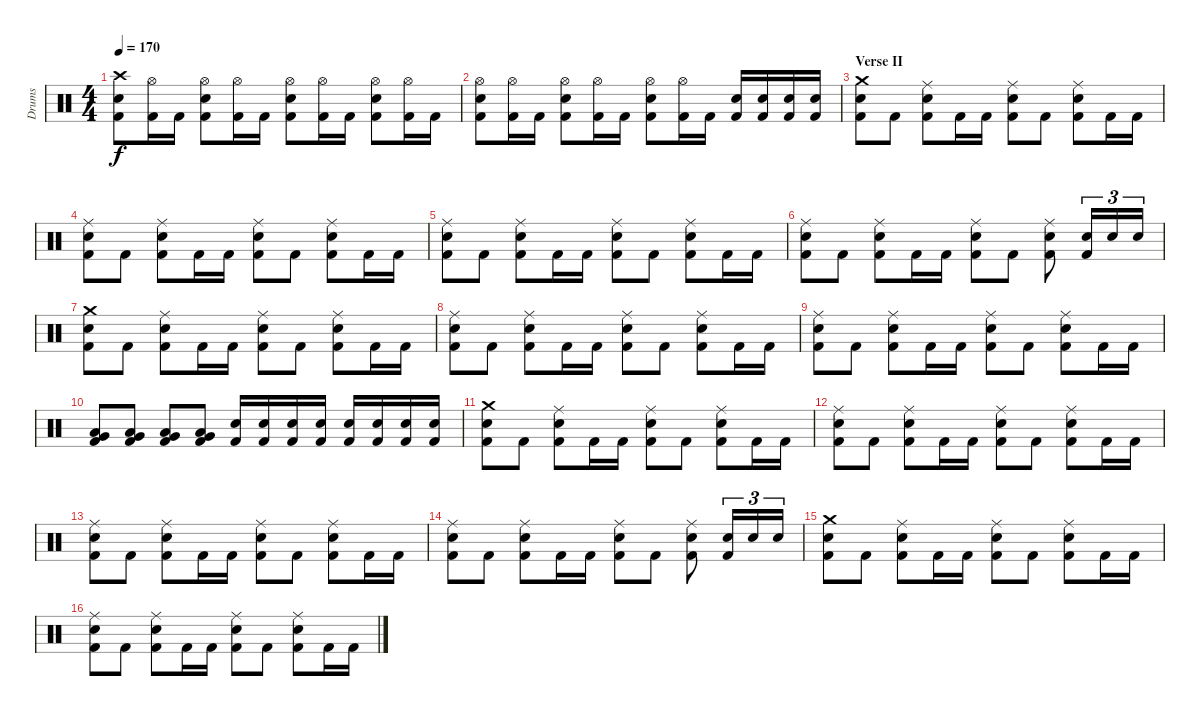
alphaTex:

\track ("Drums" "Drums") {instrument percussion}
\staff {score}
\articulation defaults
\ts (4 4)
\tempo 170
\clef neutral
\ks c
("Kick (hit) 2" "Snare (hit) 2" "Crash high (hit)").8{dy f} ("Kick (hit) 2" "Hi-Hat (open)").16 "Kick (hit) 2".16 ("Kick (hit) 2" "Snare (hit) 2" "Hi-Hat (open)").8 ("Kick (hit) 2" "Hi-Hat (open)").16 "Kick (hit) 2".16 ("Kick (hit) 2" "Snare (hit) 2" "Hi-Hat (open)").8 ("Kick (hit) 2" "Hi-Hat (open)").16 "Kick (hit) 2".16 ("Kick (hit) 2" "Snare (hit) 2" "Hi-Hat (open)").8 ("Kick (hit) 2" "Hi-Hat (open)").16 "Kick (hit) 2".16 |
("Kick (hit) 2" "Snare (hit) 2" "Hi-Hat (open)").8 ("Kick (hit) 2" "Hi-Hat (open)").16 "Kick (hit) 2".16 ("Kick (hit) 2" "Snare (hit) 2" "Hi-Hat (open)").8 ("Kick (hit) 2" "Hi-Hat (open)").16 "Kick (hit) 2".16 ("Kick (hit) 2" "Snare (hit) 2" "Hi-Hat (open)").8 ("Kick (hit) 2" "Hi-Hat (open)").16 "Kick (hit) 2".16 ("Kick (hit) 2" "Snare (hit) 2").16 ("Kick (hit) 2" "Snare (hit) 2").16 ("Kick (hit) 2" "Snare (hit) 2").16 ("Kick (hit) 2" "Snare (hit) 2").16 |
\section ("" "Verse II")
("Kick (hit) 2" "Snare (hit) 2" "Crash medium (hit)").8 "Kick (hit) 2".8 ("Kick (hit) 2" "Snare (hit) 2" "Ride (middle)").8 "Kick (hit) 2".16 "Kick (hit) 2".16 ("Kick (hit) 2" "Snare (hit) 2" "Ride (middle)").8 "Kick (hit) 2".8 ("Kick (hit) 2" "Snare (hit) 2" "Ride (middle)").8 "Kick (hit) 2".16 "Kick (hit) 2".16 |
("Kick (hit) 2" "Snare (hit) 2" "Ride (middle)").8 "Kick (hit) 2".8 ("Kick (hit) 2" "Snare (hit) 2" "Ride (middle)").8 "Kick (hit) 2".16 "Kick (hit) 2".16 ("Kick (hit) 2" "Snare (hit) 2" "Ride (middle)").8 "Kick (hit) 2".8 ("Kick (hit) 2" "Snare (hit) 2" "Ride (middle)").8 "Kick (hit) 2".16 "Kick (hit) 2".16 |
("Kick (hit) 2" "Snare (hit) 2" "Ride (middle)").8 "Kick (hit) 2".8 ("Kick (hit) 2" "Snare (hit) 2" "Ride (middle)").8 "Kick (hit) 2".16 "Kick (hit) 2".16 ("Kick (hit) 2" "Snare (hit) 2" "Ride (middle)").8 "Kick (hit) 2".8 ("Kick (hit) 2" "Snare (hit) 2" "Ride (middle)").8 "Kick (hit) 2".16 "Kick (hit) 2".16 |
("Kick (hit) 2" "Snare (hit) 2" "Ride (middle)").8 "Kick (hit) 2".8 ("Kick (hit) 2" "Snare (hit) 2" "Ride (middle)").8 "Kick (hit) 2".16 "Kick (hit) 2".16 ("Kick (hit) 2" "Snare (hit) 2" "Ride (middle)").8 "Kick (hit) 2".8 ("Kick (hit) 2" "Snare (hit) 2" "Ride (middle)").8 ("Kick (hit) 2" "Snare (hit) 2").16{tu (3 2)} "Snare (hit) 2".16{tu (3 2)} "Snare (hit) 2".16{tu (3 2)} |
("Kick (hit) 2" "Snare (hit) 2" "Crash medium (hit)").8 "Kick (hit) 2".8 ("Kick (hit) 2" "Snare (hit) 2" "Ride (middle)").8 "Kick (hit) 2".16 "Kick (hit) 2".16 ("Kick (hit) 2" "Snare (hit) 2" "Ride (middle)").8 "Kick (hit) 2".8 ("Kick (hit) 2" "Snare (hit) 2" "Ride (middle)").8 "Kick (hit) 2".16 "Kick (hit) 2".16 |
("Kick (hit) 2" "Snare (hit) 2" "Ride (middle)").8 "Kick (hit) 2".8 ("Kick (hit) 2" "Snare (hit) 2" "Ride (middle)").8 "Kick (hit) 2".16 "Kick (hit) 2".16 ("Kick (hit) 2" "Snare (hit) 2" "Ride (middle)").8 "Kick (hit) 2".8 ("Kick (hit) 2" "Snare (hit) 2" "Ride (middle)").8 "Kick (hit) 2".16 "Kick (hit) 2".16 |
("Kick (hit) 2" "Snare (hit) 2" "Ride (middle)").8 "Kick (hit) 2".8 ("Kick (hit) 2" "Snare (hit) 2" "Ride (middle)").8 "Kick (hit) 2".16 "Kick (hit) 2".16 ("Kick (hit) 2" "Snare (hit) 2" "Ride (middle)").8 "Kick (hit) 2".8 ("Kick (hit) 2" "Snare (hit) 2" "Ride (middle)").8 "Kick (hit) 2".16 "Kick (hit) 2".16 |
("Kick (hit) 2" "Very Low Tom (hit)" "Low Tom (hit)").8 ("Kick (hit) 2" "Very Low Tom (hit)" "Low Tom (hit)").8 ("Kick (hit) 2" "Very Low Tom (hit)" "Low Tom (hit)").8 ("Kick (hit) 2" "Very Low Tom (hit)" "Low Tom (hit)").8 ("Kick (hit) 2" "Snare (hit) 2").16 ("Kick (hit) 2" "Snare (hit) 2").16 ("Kick (hit) 2" "Snare (hit) 2").16 ("Kick (hit) 2" "Snare (hit) 2").16 ("Kick (hit) 2" "Snare (hit) 2").16 ("Kick (hit) 2" "Snare (hit) 2").16 ("Kick (hit) 2" "Snare (hit) 2").16 ("Kick (hit) 2" "Snare (hit) 2").16 |
("Kick (hit) 2" "Snare (hit) 2" "Crash medium (hit)").8 "Kick (hit) 2".8 ("Kick (hit) 2" "Snare (hit) 2" "Ride (middle)").8 "Kick (hit) 2".16 "Kick (hit) 2".16 ("Kick (hit) 2" "Snare (hit) 2" "Ride (middle)").8 "Kick (hit) 2".8 ("Kick (hit) 2" "Snare (hit) 2" "Ride (middle)").8 "Kick (hit) 2".16 "Kick (hit) 2".16 |
("Kick (hit) 2" "Snare (hit) 2" "Ride (middle)").8 "Kick (hit) 2".8 ("Kick (hit) 2" "Snare (hit) 2" "Ride (middle)").8 "Kick (hit) 2".16 "Kick (hit) 2".16 ("Kick (hit) 2" "Snare (hit) 2" "Ride (middle)").8 "Kick (hit) 2".8 ("Kick (hit) 2" "Snare (hit) 2" "Ride (middle)").8 "Kick (hit) 2".16 "Kick (hit) 2".16 |
("Kick (hit) 2" "Snare (hit) 2" "Ride (middle)").8 "Kick (hit) 2".8 ("Kick (hit) 2" "Snare (hit) 2" "Ride (middle)").8 "Kick (hit) 2".16 "Kick (hit) 2".16 ("Kick (hit) 2" "Snare (hit) 2" "Ride (middle)").8 "Kick (hit) 2".8 ("Kick (hit) 2" "Snare (hit) 2" "Ride (middle)").8 "Kick (hit) 2".16 "Kick (hit) 2".16 |
("Kick (hit) 2" "Snare (hit) 2" "Ride (middle)").8 "Kick (hit) 2".8 ("Kick (hit) 2" "Snare (hit) 2" "Ride (middle)").8 "Kick (hit) 2".16 "Kick (hit) 2".16 ("Kick (hit) 2" "Snare (hit) 2" "Ride (middle)").8 "Kick (hit) 2".8 ("Kick (hit) 2" "Snare (hit) 2" "Ride (middle)").8 ("Kick (hit) 2" "Snare (hit) 2").16{tu (3 2)} "Snare (hit) 2".16{tu (3 2)} "Snare (hit) 2".16{tu (3 2)} |
("Kick (hit) 2" "Snare (hit) 2" "Crash medium (hit)").8 "Kick (hit) 2".8 ("Kick (hit) 2" "Snare (hit) 2" "Ride (middle)").8 "Kick (hit) 2".16 "Kick (hit) 2".16 ("Kick (hit) 2" "Snare (hit) 2" "Ride (middle)").8 "Kick (hit) 2".8 ("Kick (hit) 2" "Snare (hit) 2" "Ride (middle)").8 "Kick (hit) 2".16 "Kick (hit) 2".16 |
("Kick (hit) 2" "Snare (hit) 2" "Ride (middle)").8 "Kick (hit) 2".8 ("Kick (hit) 2" "Snare (hit) 2" "Ride (middle)").8 "Kick (hit) 2".16 "Kick (hit) 2".16 ("Kick (hit) 2" "Snare (hit) 2" "Ride (middle)").8 "Kick (hit) 2".8 ("Kick (hit) 2" "Snare (hit) 2" "Ride (middle)").8 "Kick (hit) 2".16 "Kick (hit) 2".16
